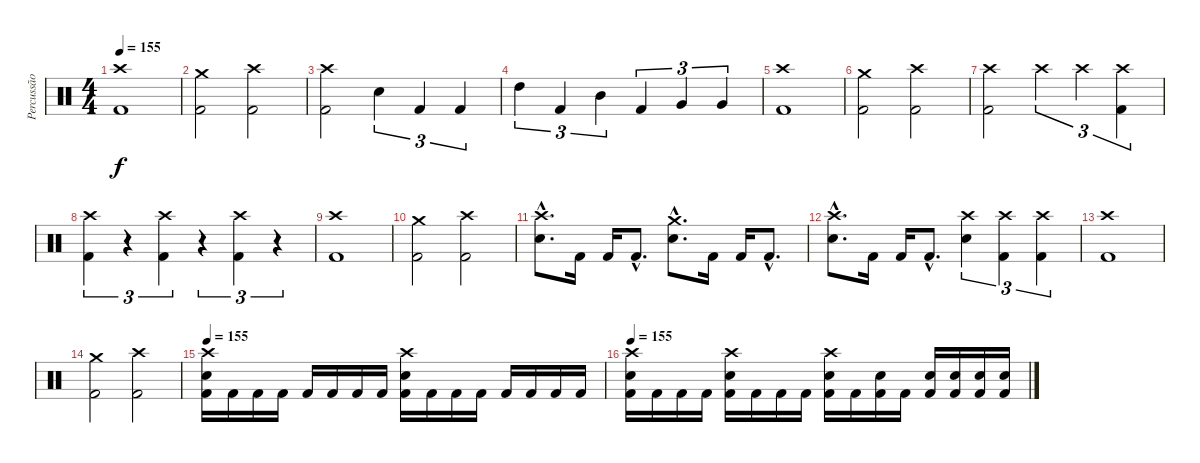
\track ("Percussão" "Percussão") {instrument percussion}
\staff {score}
\articulation defaults
\ts (4 4)
\tempo 155
\tempo 180
\tempo 155
\clef neutral
\ks c
("Crash high (hit)" "Kick (hit) 2").1{dy f} |
("Crash medium (hit)" "Kick (hit) 2").2 ("Crash high (hit)" "Kick (hit) 2").2 |
("Crash high (hit)" "Kick (hit) 2").2 "Snare (hit) 2".4{tu (3 2)} "Kick (hit) 2".4{tu (3 2)} "Kick (hit) 2".4{tu (3 2)} |
"High Tom (hit)".4{tu (3 2)} "Kick (hit) 2".4{tu (3 2)} "Mid Tom (hit)".4{tu (3 2)} "Kick (hit) 2".4{tu (3 2)} "Very Low Tom (hit)".4{tu (3 2)} "Very Low Tom (hit)".4{tu (3 2)} |
("Kick (hit) 2" "Crash high (hit)").1 |
("Kick (hit) 2" "Crash medium (hit)").2 ("Kick (hit) 2" "Crash high (hit)").2 |
("Kick (hit) 2" "Crash high (hit)").2 "Crash high (hit)".4{tu (3 2)} "Crash high (hit)".4{tu (3 2)} ("Kick (hit) 2" "Crash high (hit)").4{tu (3 2)} |
("Kick (hit) 2" "Crash high (hit)").4{tu (3 2)} r.4{tu (3 2)} ("Kick (hit) 2" "Crash high (hit)").4{tu (3 2)} r.4{tu (3 2)} ("Kick (hit) 2" "Crash high (hit)").4{tu (3 2)} r.4{tu (3 2)} |
("Kick (hit) 2" "Crash high (hit)").1 |
("Kick (hit) 2" "Crash medium (hit)").2 ("Kick (hit) 2" "Crash high (hit)").2 |
("Crash high (hit)"{hac} "Snare (hit) 2"{hac}).8{d} "Kick (hit) 2".16 "Kick (hit) 2".16 "Kick (hit) 2"{hac}.8{d} ("Crash medium (hit)"{hac} "Snare (hit) 2"{hac}).8{d} "Kick (hit) 2".16 "Kick (hit) 2".16 "Kick (hit) 2"{hac}.8{d} |
("Crash high (hit)"{hac} "Snare (hit) 2"{hac}).8{d} "Kick (hit) 2".16 "Kick (hit) 2".16 "Kick (hit) 2"{hac}.8{d} ("Snare (hit) 2" "Crash high (hit)").4{tu (3 2)} ("Kick (hit) 2" "Crash high (hit)").4{tu (3 2)} ("Kick (hit) 2" "Crash high (hit)").4{tu (3 2)} |
("Kick (hit) 2" "Crash high (hit)").1 |
("Kick (hit) 2" "Crash medium (hit)").2 ("Kick (hit) 2" "Crash high (hit)").2 |
\tempo 155
("Kick (hit) 2" "Snare (hit) 2" "Crash high (hit)").16 "Kick (hit) 2".16 "Kick (hit) 2".16 "Kick (hit) 2".16 "Kick (hit) 2".16 "Kick (hit) 2".16 "Kick (hit) 2".16 "Kick (hit) 2".16 ("Kick (hit) 2" "Snare (hit) 2" "Crash high (hit)").16 "Kick (hit) 2".16 "Kick (hit) 2".16 "Kick (hit) 2".16 "Kick (hit) 2".16 "Kick (hit) 2".16 "Kick (hit) 2".16 "Kick (hit) 2".16 |
\tempo 155
("Kick (hit) 2" "Snare (hit) 2" "Crash high (hit)").16 "Kick (hit) 2".16 "Kick (hit) 2".16 "Kick (hit) 2".16 ("Kick (hit) 2" "Snare (hit) 2" "Crash high (hit)").16 "Kick (hit) 2".16 "Kick (hit) 2".16 "Kick (hit) 2".16 ("Kick (hit) 2" "Snare (hit) 2" "Crash high (hit)").16 "Kick (hit) 2".16 ("Kick (hit) 2" "Snare (hit) 2").16 "Kick (hit) 2".16 ("Kick (hit) 2" "Snare (hit) 2").16 ("Kick (hit) 2" "Snare (hit) 2").16 ("Kick (hit) 2" "Snare (hit) 2").16 ("Kick (hit) 2" "Snare (hit) 2").16
